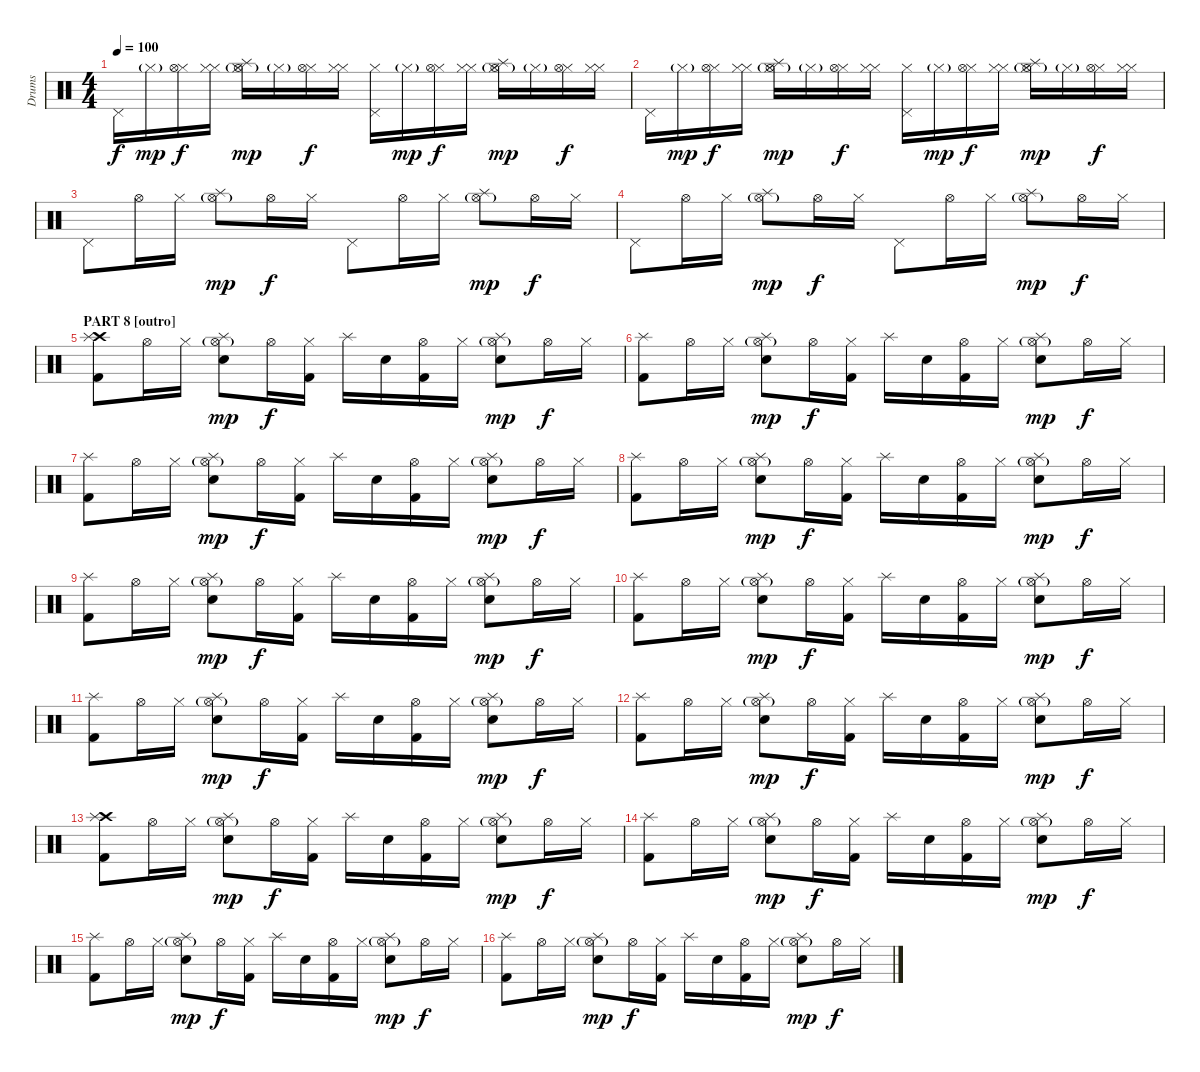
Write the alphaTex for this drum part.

\track ("Drums" "Drums") {instrument percussion}
\staff {score}
\articulation defaults
\ts (4 4)
\tempo 100
\clef neutral
\ks c "Pedal Hi-Hat (hit)".16{dy f} "Hi-Hat (closed)"{g}.16{dy mp}
("Hi-Hat (closed)" "Hi-Hat (open)").16{dy f} ("Hi-Hat (closed)" "Hi-Hat (closed)").16 ("Hi-Hat (closed)" "Hi-Hat (open)"{g} "Splash (hit)").16{dy mp} "Hi-Hat (closed)"{g}.16 ("Hi-Hat (closed)" "Hi-Hat (open)").16{dy f} ("Hi-Hat (closed)" "Hi-Hat (closed)").16 ("Hi-Hat (closed)" "Pedal Hi-Hat (hit)").16 "Hi-Hat (closed)"{g}.16{dy mp} ("Hi-Hat (closed)" "Hi-Hat (open)").16{dy f} ("Hi-Hat (closed)" "Hi-Hat (closed)").16 ("Hi-Hat (closed)" "Hi-Hat (open)"{g} "Splash (hit)").16{dy mp} "Hi-Hat (closed)"{g}.16 ("Hi-Hat (closed)" "Hi-Hat (open)").16{dy f} ("Hi-Hat (closed)" "Hi-Hat (closed)").16 |
"Pedal Hi-Hat (hit)".16 "Hi-Hat (closed)"{g}.16{dy mp} ("Hi-Hat (closed)" "Hi-Hat (open)").16{dy f} ("Hi-Hat (closed)" "Hi-Hat (closed)").16 ("Hi-Hat (closed)" "Hi-Hat (open)"{g} "Splash (hit)").16{dy mp} "Hi-Hat (closed)"{g}.16 ("Hi-Hat (closed)" "Hi-Hat (open)").16{dy f} ("Hi-Hat (closed)" "Hi-Hat (closed)").16 ("Hi-Hat (closed)" "Pedal Hi-Hat (hit)").16 "Hi-Hat (closed)"{g}.16{dy mp} ("Hi-Hat (closed)" "Hi-Hat (open)").16{dy f} ("Hi-Hat (closed)" "Hi-Hat (closed)").16 ("Hi-Hat (closed)" "Hi-Hat (open)"{g} "Splash (hit)").16{dy mp} "Hi-Hat (closed)"{g}.16 ("Hi-Hat (closed)" "Hi-Hat (open)").16{dy f} ("Hi-Hat (closed)" "Hi-Hat (closed)").16 |
"Pedal Hi-Hat (hit)".8 "Hi-Hat (open)".16 "Hi-Hat (closed)".16 ("Hi-Hat (open)"{g} "Splash (hit)").8{dy mp} "Hi-Hat (open)".16{dy f} "Hi-Hat (closed)".16 "Pedal Hi-Hat (hit)".8 "Hi-Hat (open)".16 "Hi-Hat (closed)".16 ("Hi-Hat (open)"{g} "Splash (hit)").8{dy mp} "Hi-Hat (open)".16{dy f} "Hi-Hat (closed)".16 |
"Pedal Hi-Hat (hit)".8 "Hi-Hat (open)".16 "Hi-Hat (closed)".16 ("Hi-Hat (open)"{g} "Splash (hit)").8{dy mp} "Hi-Hat (open)".16{dy f} "Hi-Hat (closed)".16 "Pedal Hi-Hat (hit)".8 "Hi-Hat (open)".16 "Hi-Hat (closed)".16 ("Hi-Hat (open)"{g} "Splash (hit)").8{dy mp} "Hi-Hat (open)".16{dy f} "Hi-Hat (closed)".16 |
\section ("" "PART 8 [outro]")
("Kick (hit) 2" "Crash high (hit)" "Splash (hit)").8 "Hi-Hat (open)".16 "Hi-Hat (closed)".16 ("Snare (hit) 2" "Hi-Hat (open)"{g} "Splash (hit)").8{dy mp} "Hi-Hat (open)".16{dy f} ("Kick (hit) 2" "Hi-Hat (closed)").16 "Splash (hit)".16 "Snare (hit) 2".16 ("Kick (hit) 2" "Hi-Hat (open)").16 "Hi-Hat (closed)".16 ("Snare (hit) 2" "Hi-Hat (open)"{g} "Splash (hit)").8{dy mp} "Hi-Hat (open)".16{dy f} "Hi-Hat (closed)".16 |
("Kick (hit) 2" "Splash (hit)").8 "Hi-Hat (open)".16 "Hi-Hat (closed)".16 ("Snare (hit) 2" "Hi-Hat (open)"{g} "Splash (hit)").8{dy mp} "Hi-Hat (open)".16{dy f} ("Kick (hit) 2" "Hi-Hat (closed)").16 "Splash (hit)".16 "Snare (hit) 2".16 ("Kick (hit) 2" "Hi-Hat (open)").16 "Hi-Hat (closed)".16 ("Snare (hit) 2" "Hi-Hat (open)"{g} "Splash (hit)").8{dy mp} "Hi-Hat (open)".16{dy f} "Hi-Hat (closed)".16 |
("Kick (hit) 2" "Splash (hit)").8 "Hi-Hat (open)".16 "Hi-Hat (closed)".16 ("Snare (hit) 2" "Hi-Hat (open)"{g} "Splash (hit)").8{dy mp} "Hi-Hat (open)".16{dy f} ("Kick (hit) 2" "Hi-Hat (closed)").16 "Splash (hit)".16 "Snare (hit) 2".16 ("Kick (hit) 2" "Hi-Hat (open)").16 "Hi-Hat (closed)".16 ("Snare (hit) 2" "Hi-Hat (open)"{g} "Splash (hit)").8{dy mp} "Hi-Hat (open)".16{dy f} "Hi-Hat (closed)".16 |
("Kick (hit) 2" "Splash (hit)").8 "Hi-Hat (open)".16 "Hi-Hat (closed)".16 ("Snare (hit) 2" "Hi-Hat (open)"{g} "Splash (hit)").8{dy mp} "Hi-Hat (open)".16{dy f} ("Kick (hit) 2" "Hi-Hat (closed)").16 "Splash (hit)".16 "Snare (hit) 2".16 ("Kick (hit) 2" "Hi-Hat (open)").16 "Hi-Hat (closed)".16 ("Snare (hit) 2" "Hi-Hat (open)"{g} "Splash (hit)").8{dy mp} "Hi-Hat (open)".16{dy f} "Hi-Hat (closed)".16 |
("Kick (hit) 2" "Splash (hit)").8 "Hi-Hat (open)".16 "Hi-Hat (closed)".16 ("Snare (hit) 2" "Hi-Hat (open)"{g} "Splash (hit)").8{dy mp} "Hi-Hat (open)".16{dy f} ("Kick (hit) 2" "Hi-Hat (closed)").16 "Splash (hit)".16 "Snare (hit) 2".16 ("Kick (hit) 2" "Hi-Hat (open)").16 "Hi-Hat (closed)".16 ("Snare (hit) 2" "Hi-Hat (open)"{g} "Splash (hit)").8{dy mp} "Hi-Hat (open)".16{dy f} "Hi-Hat (closed)".16 |
("Kick (hit) 2" "Splash (hit)").8 "Hi-Hat (open)".16 "Hi-Hat (closed)".16 ("Snare (hit) 2" "Hi-Hat (open)"{g} "Splash (hit)").8{dy mp} "Hi-Hat (open)".16{dy f} ("Kick (hit) 2" "Hi-Hat (closed)").16 "Splash (hit)".16 "Snare (hit) 2".16 ("Kick (hit) 2" "Hi-Hat (open)").16 "Hi-Hat (closed)".16 ("Snare (hit) 2" "Hi-Hat (open)"{g} "Splash (hit)").8{dy mp} "Hi-Hat (open)".16{dy f} "Hi-Hat (closed)".16 |
("Kick (hit) 2" "Splash (hit)").8 "Hi-Hat (open)".16 "Hi-Hat (closed)".16 ("Snare (hit) 2" "Hi-Hat (open)"{g} "Splash (hit)").8{dy mp} "Hi-Hat (open)".16{dy f} ("Kick (hit) 2" "Hi-Hat (closed)").16 "Splash (hit)".16 "Snare (hit) 2".16 ("Kick (hit) 2" "Hi-Hat (open)").16 "Hi-Hat (closed)".16 ("Snare (hit) 2" "Hi-Hat (open)"{g} "Splash (hit)").8{dy mp} "Hi-Hat (open)".16{dy f} "Hi-Hat (closed)".16 |
("Kick (hit) 2" "Splash (hit)").8 "Hi-Hat (open)".16 "Hi-Hat (closed)".16 ("Snare (hit) 2" "Hi-Hat (open)"{g} "Splash (hit)").8{dy mp} "Hi-Hat (open)".16{dy f} ("Kick (hit) 2" "Hi-Hat (closed)").16 "Splash (hit)".16 "Snare (hit) 2".16 ("Kick (hit) 2" "Hi-Hat (open)").16 "Hi-Hat (closed)".16 ("Snare (hit) 2" "Hi-Hat (open)"{g} "Splash (hit)").8{dy mp} "Hi-Hat (open)".16{dy f} "Hi-Hat (closed)".16 |
("Kick (hit) 2" "Crash high (hit)" "Splash (hit)").8 "Hi-Hat (open)".16 "Hi-Hat (closed)".16 ("Snare (hit) 2" "Hi-Hat (open)"{g} "Splash (hit)").8{dy mp} "Hi-Hat (open)".16{dy f} ("Kick (hit) 2" "Hi-Hat (closed)").16 "Splash (hit)".16 "Snare (hit) 2".16 ("Kick (hit) 2" "Hi-Hat (open)").16 "Hi-Hat (closed)".16 ("Snare (hit) 2" "Hi-Hat (open)"{g} "Splash (hit)").8{dy mp} "Hi-Hat (open)".16{dy f} "Hi-Hat (closed)".16 |
("Kick (hit) 2" "Splash (hit)").8 "Hi-Hat (open)".16 "Hi-Hat (closed)".16 ("Snare (hit) 2" "Hi-Hat (open)"{g} "Splash (hit)").8{dy mp} "Hi-Hat (open)".16{dy f} ("Kick (hit) 2" "Hi-Hat (closed)").16 "Splash (hit)".16 "Snare (hit) 2".16 ("Kick (hit) 2" "Hi-Hat (open)").16 "Hi-Hat (closed)".16 ("Snare (hit) 2" "Hi-Hat (open)"{g} "Splash (hit)").8{dy mp} "Hi-Hat (open)".16{dy f} "Hi-Hat (closed)".16 |
("Kick (hit) 2" "Splash (hit)").8 "Hi-Hat (open)".16 "Hi-Hat (closed)".16 ("Snare (hit) 2" "Hi-Hat (open)"{g} "Splash (hit)").8{dy mp} "Hi-Hat (open)".16{dy f} ("Kick (hit) 2" "Hi-Hat (closed)").16 "Splash (hit)".16 "Snare (hit) 2".16 ("Kick (hit) 2" "Hi-Hat (open)").16 "Hi-Hat (closed)".16 ("Snare (hit) 2" "Hi-Hat (open)"{g} "Splash (hit)").8{dy mp} "Hi-Hat (open)".16{dy f} "Hi-Hat (closed)".16 |
("Kick (hit) 2" "Splash (hit)").8 "Hi-Hat (open)".16 "Hi-Hat (closed)".16 ("Snare (hit) 2" "Hi-Hat (open)"{g} "Splash (hit)").8{dy mp} "Hi-Hat (open)".16{dy f} ("Kick (hit) 2" "Hi-Hat (closed)").16 "Splash (hit)".16 "Snare (hit) 2".16 ("Kick (hit) 2" "Hi-Hat (open)").16 "Hi-Hat (closed)".16 ("Snare (hit) 2" "Hi-Hat (open)"{g} "Splash (hit)").8{dy mp} "Hi-Hat (open)".16{dy f} "Hi-Hat (closed)".16
